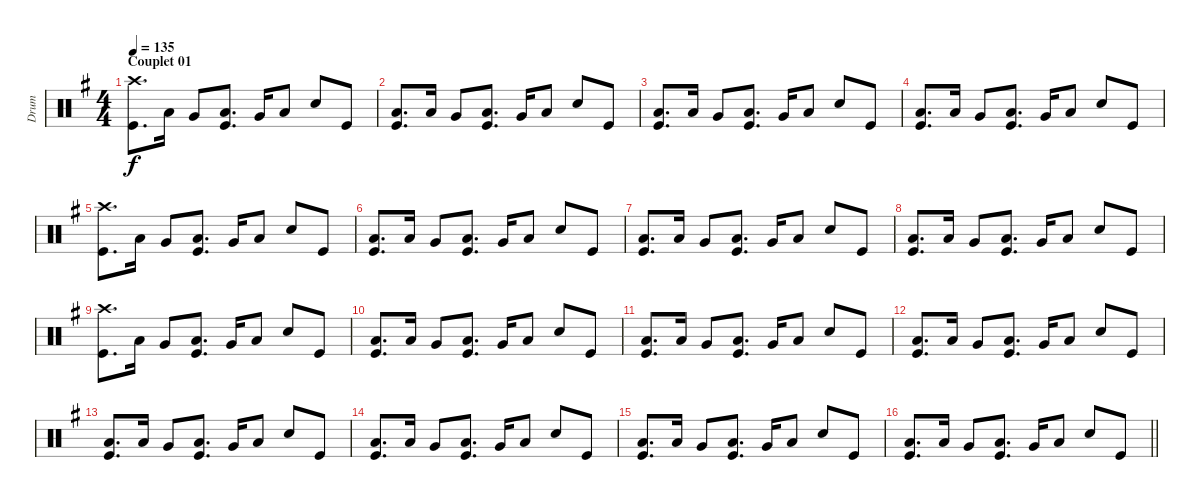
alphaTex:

\track ("Drum" "Drum") {instrument percussion}
\staff {score}
\articulation defaults
\ts (4 4)
\section ("" "Couplet 01")
\tempo 135
\clef neutral
\ks g
("Crash high (hit)" "Kick (hit)").8{d dy f} "Low Tom (hit)".16 "Very Low Tom (hit)".8 ("Low Tom (hit)" "Kick (hit)").8{d} "Very Low Tom (hit)".16 "Low Floor Tom (hit)".8 "Snare (hit) 2".8 "Kick (hit)".8 |
("Low Floor Tom (hit)" "Kick (hit)").8{d} "Low Tom (hit)".16 "Very Low Tom (hit)".8 ("Low Tom (hit)" "Kick (hit)").8{d} "Very Low Tom (hit)".16 "Low Floor Tom (hit)".8 "Snare (hit) 2".8 "Kick (hit)".8 |
("Low Floor Tom (hit)" "Kick (hit)").8{d} "Low Tom (hit)".16 "Very Low Tom (hit)".8 ("Low Tom (hit)" "Kick (hit)").8{d} "Very Low Tom (hit)".16 "Low Floor Tom (hit)".8 "Snare (hit) 2".8 "Kick (hit)".8 |
("Low Floor Tom (hit)" "Kick (hit)").8{d} "Low Tom (hit)".16 "Very Low Tom (hit)".8 ("Low Tom (hit)" "Kick (hit)").8{d} "Very Low Tom (hit)".16 "Low Floor Tom (hit)".8 "Snare (hit) 2".8 "Kick (hit)".8 |
("Crash high (hit)" "Kick (hit)").8{d} "Low Tom (hit)".16 "Very Low Tom (hit)".8 ("Low Tom (hit)" "Kick (hit)").8{d} "Very Low Tom (hit)".16 "Low Floor Tom (hit)".8 "Snare (hit) 2".8 "Kick (hit)".8 |
("Low Floor Tom (hit)" "Kick (hit)").8{d} "Low Tom (hit)".16 "Very Low Tom (hit)".8 ("Low Tom (hit)" "Kick (hit)").8{d} "Very Low Tom (hit)".16 "Low Floor Tom (hit)".8 "Snare (hit) 2".8 "Kick (hit)".8 |
("Low Floor Tom (hit)" "Kick (hit)").8{d} "Low Tom (hit)".16 "Very Low Tom (hit)".8 ("Low Tom (hit)" "Kick (hit)").8{d} "Very Low Tom (hit)".16 "Low Floor Tom (hit)".8 "Snare (hit) 2".8 "Kick (hit)".8 |
("Low Floor Tom (hit)" "Kick (hit)").8{d} "Low Tom (hit)".16 "Very Low Tom (hit)".8 ("Low Tom (hit)" "Kick (hit)").8{d} "Very Low Tom (hit)".16 "Low Floor Tom (hit)".8 "Snare (hit) 2".8 "Kick (hit)".8 |
("Crash high (hit)" "Kick (hit)").8{d} "Low Tom (hit)".16 "Very Low Tom (hit)".8 ("Low Tom (hit)" "Kick (hit)").8{d} "Very Low Tom (hit)".16 "Low Floor Tom (hit)".8 "Snare (hit) 2".8 "Kick (hit)".8 |
("Low Floor Tom (hit)" "Kick (hit)").8{d} "Low Tom (hit)".16 "Very Low Tom (hit)".8 ("Low Tom (hit)" "Kick (hit)").8{d} "Very Low Tom (hit)".16 "Low Floor Tom (hit)".8 "Snare (hit) 2".8 "Kick (hit)".8 |
("Low Floor Tom (hit)" "Kick (hit)").8{d} "Low Tom (hit)".16 "Very Low Tom (hit)".8 ("Low Tom (hit)" "Kick (hit)").8{d} "Very Low Tom (hit)".16 "Low Floor Tom (hit)".8 "Snare (hit) 2".8 "Kick (hit)".8 |
("Low Floor Tom (hit)" "Kick (hit)").8{d} "Low Tom (hit)".16 "Very Low Tom (hit)".8 ("Low Tom (hit)" "Kick (hit)").8{d} "Very Low Tom (hit)".16 "Low Floor Tom (hit)".8 "Snare (hit) 2".8 "Kick (hit)".8 |
("Low Floor Tom (hit)" "Kick (hit)").8{d} "Low Tom (hit)".16 "Very Low Tom (hit)".8 ("Low Tom (hit)" "Kick (hit)").8{d} "Very Low Tom (hit)".16 "Low Floor Tom (hit)".8 "Snare (hit) 2".8 "Kick (hit)".8 |
("Low Floor Tom (hit)" "Kick (hit)").8{d} "Low Tom (hit)".16 "Very Low Tom (hit)".8 ("Low Tom (hit)" "Kick (hit)").8{d} "Very Low Tom (hit)".16 "Low Floor Tom (hit)".8 "Snare (hit) 2".8 "Kick (hit)".8 |
("Low Floor Tom (hit)" "Kick (hit)").8{d} "Low Tom (hit)".16 "Very Low Tom (hit)".8 ("Low Tom (hit)" "Kick (hit)").8{d} "Very Low Tom (hit)".16 "Low Floor Tom (hit)".8 "Snare (hit) 2".8 "Kick (hit)".8 |
\barLineRight lightlight
("Low Floor Tom (hit)" "Kick (hit)").8{d} "Low Tom (hit)".16 "Very Low Tom (hit)".8 ("Low Tom (hit)" "Kick (hit)").8{d} "Very Low Tom (hit)".16 "Low Floor Tom (hit)".8 "Snare (hit) 2".8 "Kick (hit)".8
